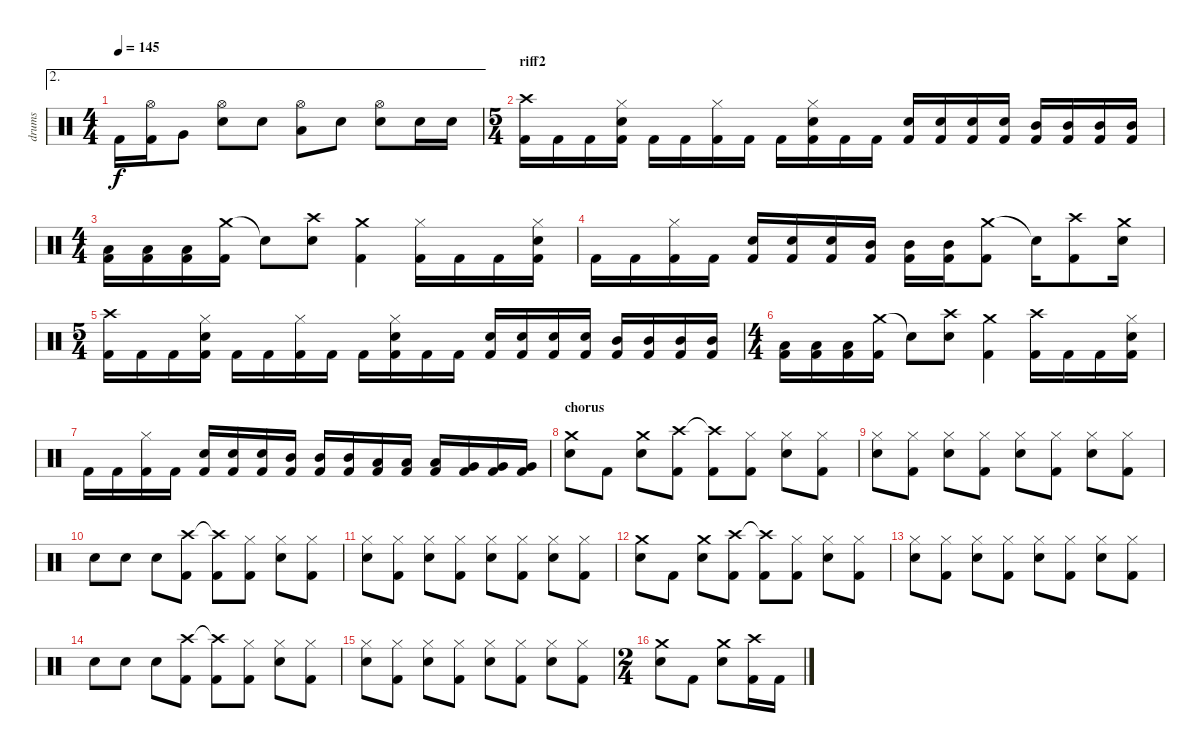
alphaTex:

\track ("drums" "drums") {instrument percussion}
\staff {score}
\articulation defaults
\ae 2
\ts (4 4)
\tempo 145
\clef neutral
\ks c "Kick (hit) 2".16{dy f}
("Kick (hit) 2" "Hi-Hat (open)").16 "Very Low Tom (hit)".8 ("Snare (hit) 2" "Hi-Hat (open)").8 "Snare (hit) 2".8 ("Low Tom (hit)" "Hi-Hat (open)").8 "Snare (hit) 2".8 ("Snare (hit) 2" "Hi-Hat (open)").8 "Snare (hit) 2".16 "Snare (hit) 2".16 |
\ts (5 4)
\section ("" "riff2")
("Crash high (hit)" "Kick (hit) 2").16 "Kick (hit) 2".16 "Kick (hit) 2".16 ("Snare (hit) 2" "Kick (hit) 2" "Hi-Hat (closed)").16 "Kick (hit) 2".16 "Kick (hit) 2".16 ("Kick (hit) 2" "Hi-Hat (closed)").16 "Kick (hit) 2".16 "Kick (hit) 2".16 ("Snare (hit) 2" "Kick (hit) 2" "Hi-Hat (closed)").16 "Kick (hit) 2".16 "Kick (hit) 2".16 ("Snare (hit) 2" "Kick (hit) 2").16 ("Snare (hit) 2" "Kick (hit) 2").16 ("Snare (hit) 2" "Kick (hit) 2").16 ("Snare (hit) 2" "Kick (hit) 2").16 ("Mid Tom (hit)" "Kick (hit) 2").16 ("Mid Tom (hit)" "Kick (hit) 2").16 ("Mid Tom (hit)" "Kick (hit) 2").16 ("Mid Tom (hit)" "Kick (hit) 2").16 |
\ts (4 4)
("Low Tom (hit)" "Kick (hit) 2").16 ("Low Tom (hit)" "Kick (hit) 2").16 ("Low Tom (hit)" "Kick (hit) 2").16 ("Crash medium (hit)" "Kick (hit) 2").16 "Snare (hit)"{t}.8 ("Crash high (hit)" "Snare (hit) 2").8 ("Crash medium (hit)" "Kick (hit) 2").4 ("Kick (hit) 2" "Hi-Hat (closed)").16 "Kick (hit) 2".16 "Kick (hit) 2".16 ("Snare (hit) 2" "Kick (hit) 2" "Hi-Hat (closed)").16 |
"Kick (hit) 2".16 "Kick (hit) 2".16 ("Kick (hit) 2" "Hi-Hat (closed)").16 "Kick (hit) 2".16 ("Snare (hit) 2" "Kick (hit) 2").16 ("Snare (hit) 2" "Kick (hit) 2").16 ("Snare (hit) 2" "Kick (hit) 2").16 ("Mid Tom (hit)" "Kick (hit) 2").16 ("Mid Tom (hit)" "Kick (hit) 2").16 ("Mid Tom (hit)" "Kick (hit) 2").16 ("Crash medium (hit)" "Kick (hit) 2").8 "Snare (hit)"{t}.16 ("Crash high (hit)" "Kick (hit) 2").8 ("Crash medium (hit)" "Snare (hit) 2").16 |
\ts (5 4)
("Crash high (hit)" "Kick (hit) 2").16 "Kick (hit) 2".16 "Kick (hit) 2".16 ("Snare (hit) 2" "Kick (hit) 2" "Hi-Hat (closed)").16 "Kick (hit) 2".16 "Kick (hit) 2".16 ("Kick (hit) 2" "Hi-Hat (closed)").16 "Kick (hit) 2".16 "Kick (hit) 2".16 ("Snare (hit) 2" "Kick (hit) 2" "Hi-Hat (closed)").16 "Kick (hit) 2".16 "Kick (hit) 2".16 ("Snare (hit) 2" "Kick (hit) 2").16 ("Snare (hit) 2" "Kick (hit) 2").16 ("Snare (hit) 2" "Kick (hit) 2").16 ("Snare (hit) 2" "Kick (hit) 2").16 ("Mid Tom (hit)" "Kick (hit) 2").16 ("Mid Tom (hit)" "Kick (hit) 2").16 ("Mid Tom (hit)" "Kick (hit) 2").16 ("Mid Tom (hit)" "Kick (hit) 2").16 |
\ts (4 4)
("Low Tom (hit)" "Kick (hit) 2").16 ("Low Tom (hit)" "Kick (hit) 2").16 ("Low Tom (hit)" "Kick (hit) 2").16 ("Crash medium (hit)" "Kick (hit) 2").16 "Snare (hit)"{t}.8 ("Crash high (hit)" "Snare (hit) 2").8 ("Crash medium (hit)" "Kick (hit) 2").4 ("Crash high (hit)" "Kick (hit) 2").16 "Kick (hit) 2".16 "Kick (hit) 2".16 ("Snare (hit) 2" "Kick (hit) 2" "Hi-Hat (closed)").16 |
"Kick (hit) 2".16 "Kick (hit) 2".16 ("Kick (hit) 2" "Hi-Hat (closed)").16 "Kick (hit) 2".16 ("Snare (hit) 2" "Kick (hit) 2").16 ("Snare (hit) 2" "Kick (hit) 2").16 ("Snare (hit) 2" "Kick (hit) 2").16 ("Mid Tom (hit)" "Kick (hit) 2").16 ("Mid Tom (hit)" "Kick (hit) 2").16 ("Mid Tom (hit)" "Kick (hit) 2").16 ("Low Tom (hit)" "Kick (hit) 2").16 ("Low Tom (hit)" "Kick (hit) 2").16 ("Low Tom (hit)" "Kick (hit) 2").16 ("Very Low Tom (hit)" "Kick (hit) 2").16 ("Very Low Tom (hit)" "Kick (hit) 2").16 ("Very Low Tom (hit)" "Kick (hit) 2").16 |
\section ("" "chorus")
("Crash medium (hit)" "Snare (hit) 2").8 "Kick (hit) 2".8 ("Crash medium (hit)" "Snare (hit) 2").8 ("Crash high (hit)" "Kick (hit) 2").8 ("Crash high (hit)"{t} "Kick (hit) 2").8 ("Kick (hit) 2" "Hi-Hat (closed)").8 ("Snare (hit) 2" "Hi-Hat (closed)").8 ("Kick (hit) 2" "Hi-Hat (closed)").8 |
("Snare (hit) 2" "Hi-Hat (closed)").8 ("Kick (hit) 2" "Hi-Hat (closed)").8 ("Snare (hit) 2" "Hi-Hat (closed)").8 ("Kick (hit) 2" "Hi-Hat (closed)").8 ("Snare (hit) 2" "Hi-Hat (closed)").8 ("Kick (hit) 2" "Hi-Hat (closed)").8 ("Snare (hit) 2" "Hi-Hat (closed)").8 ("Kick (hit) 2" "Hi-Hat (closed)").8 |
"Snare (hit) 2".8 "Snare (hit) 2".8 "Snare (hit) 2".8 ("Crash high (hit)" "Kick (hit) 2").8 ("Crash high (hit)"{t} "Kick (hit) 2").8 ("Kick (hit) 2" "Hi-Hat (closed)").8 ("Snare (hit) 2" "Hi-Hat (closed)").8 ("Kick (hit) 2" "Hi-Hat (closed)").8 |
("Snare (hit) 2" "Hi-Hat (closed)").8 ("Kick (hit) 2" "Hi-Hat (closed)").8 ("Snare (hit) 2" "Hi-Hat (closed)").8 ("Kick (hit) 2" "Hi-Hat (closed)").8 ("Snare (hit) 2" "Hi-Hat (closed)").8 ("Kick (hit) 2" "Hi-Hat (closed)").8 ("Snare (hit) 2" "Hi-Hat (closed)").8 ("Kick (hit) 2" "Hi-Hat (closed)").8 |
("Crash medium (hit)" "Snare (hit) 2").8 "Kick (hit) 2".8 ("Crash medium (hit)" "Snare (hit) 2").8 ("Crash high (hit)" "Kick (hit) 2").8 ("Crash high (hit)"{t} "Kick (hit) 2").8 ("Kick (hit) 2" "Hi-Hat (closed)").8 ("Snare (hit) 2" "Hi-Hat (closed)").8 ("Kick (hit) 2" "Hi-Hat (closed)").8 |
("Snare (hit) 2" "Hi-Hat (closed)").8 ("Kick (hit) 2" "Hi-Hat (closed)").8 ("Snare (hit) 2" "Hi-Hat (closed)").8 ("Kick (hit) 2" "Hi-Hat (closed)").8 ("Snare (hit) 2" "Hi-Hat (closed)").8 ("Kick (hit) 2" "Hi-Hat (closed)").8 ("Snare (hit) 2" "Hi-Hat (closed)").8 ("Kick (hit) 2" "Hi-Hat (closed)").8 |
"Snare (hit) 2".8 "Snare (hit) 2".8 "Snare (hit) 2".8 ("Crash high (hit)" "Kick (hit) 2").8 ("Crash high (hit)"{t} "Kick (hit) 2").8 ("Kick (hit) 2" "Hi-Hat (closed)").8 ("Snare (hit) 2" "Hi-Hat (closed)").8 ("Kick (hit) 2" "Hi-Hat (closed)").8 |
("Snare (hit) 2" "Hi-Hat (closed)").8 ("Kick (hit) 2" "Hi-Hat (closed)").8 ("Snare (hit) 2" "Hi-Hat (closed)").8 ("Kick (hit) 2" "Hi-Hat (closed)").8 ("Snare (hit) 2" "Hi-Hat (closed)").8 ("Kick (hit) 2" "Hi-Hat (closed)").8 ("Snare (hit) 2" "Hi-Hat (closed)").8 ("Kick (hit) 2" "Hi-Hat (closed)").8 |
\ts (2 4)
("Crash medium (hit)" "Snare (hit) 2").8 "Kick (hit) 2".8 ("Crash medium (hit)" "Snare (hit) 2").8 ("Crash high (hit)" "Kick (hit) 2").16 "Kick (hit) 2".16
